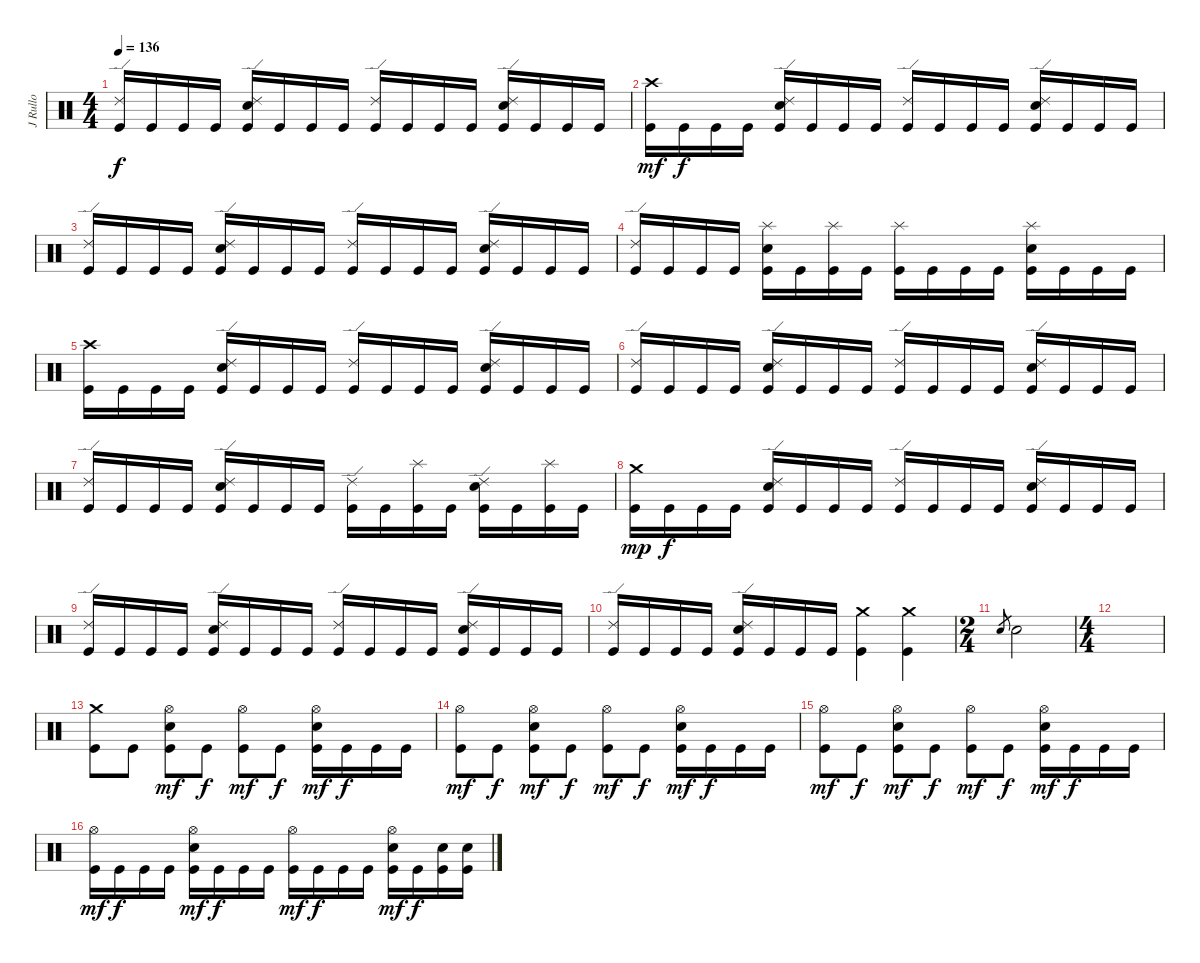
\track ("J Rullo" "J Rullo") {instrument percussion}
\staff {score}
\articulation defaults
\ts (4 4)
\tempo 136
\clef neutral
\ks c
("Ride (edge) 2" "Kick (hit)").16{dy f} "Kick (hit)".16 "Kick (hit)".16 "Kick (hit)".16 ("Ride (edge) 2" "Electric Snare (hit)" "Kick (hit)").16 "Kick (hit)".16 "Kick (hit)".16 "Kick (hit)".16 ("Ride (edge) 2" "Kick (hit)").16 "Kick (hit)".16 "Kick (hit)".16 "Kick (hit)".16 ("Ride (edge) 2" "Electric Snare (hit)" "Kick (hit)").16 "Kick (hit)".16 "Kick (hit)".16 "Kick (hit)".16 |
("Crash high (hit)" "Kick (hit)").16{dy mf} "Kick (hit)".16{dy f} "Kick (hit)".16 "Kick (hit)".16 ("Ride (edge) 2" "Electric Snare (hit)" "Kick (hit)").16 "Kick (hit)".16 "Kick (hit)".16 "Kick (hit)".16 ("Ride (edge) 2" "Kick (hit)").16 "Kick (hit)".16 "Kick (hit)".16 "Kick (hit)".16 ("Ride (edge) 2" "Electric Snare (hit)" "Kick (hit)").16 "Kick (hit)".16 "Kick (hit)".16 "Kick (hit)".16 |
("Ride (edge) 2" "Kick (hit)").16 "Kick (hit)".16 "Kick (hit)".16 "Kick (hit)".16 ("Ride (edge) 2" "Electric Snare (hit)" "Kick (hit)").16 "Kick (hit)".16 "Kick (hit)".16 "Kick (hit)".16 ("Ride (edge) 2" "Kick (hit)").16 "Kick (hit)".16 "Kick (hit)".16 "Kick (hit)".16 ("Ride (edge) 2" "Electric Snare (hit)" "Kick (hit)").16 "Kick (hit)".16 "Kick (hit)".16 "Kick (hit)".16 |
("Ride (edge) 2" "Kick (hit)").16 "Kick (hit)".16 "Kick (hit)".16 "Kick (hit)".16 ("Splash (hit)" "Electric Snare (hit)" "Kick (hit)").16 "Kick (hit)".16 ("Splash (hit)" "Kick (hit)").16 "Kick (hit)".16 ("Splash (hit)" "Kick (hit)").16 "Kick (hit)".16 "Kick (hit)".16 "Kick (hit)".16 ("Splash (hit)" "Electric Snare (hit)" "Kick (hit)").16 "Kick (hit)".16 "Kick (hit)".16 "Kick (hit)".16 |
("Crash high (hit)" "Kick (hit)").16 "Kick (hit)".16 "Kick (hit)".16 "Kick (hit)".16 ("Ride (edge) 2" "Electric Snare (hit)" "Kick (hit)").16 "Kick (hit)".16 "Kick (hit)".16 "Kick (hit)".16 ("Ride (edge) 2" "Kick (hit)").16 "Kick (hit)".16 "Kick (hit)".16 "Kick (hit)".16 ("Ride (edge) 2" "Electric Snare (hit)" "Kick (hit)").16 "Kick (hit)".16 "Kick (hit)".16 "Kick (hit)".16 |
("Ride (edge) 2" "Kick (hit)").16 "Kick (hit)".16 "Kick (hit)".16 "Kick (hit)".16 ("Ride (edge) 2" "Electric Snare (hit)" "Kick (hit)").16 "Kick (hit)".16 "Kick (hit)".16 "Kick (hit)".16 ("Ride (edge) 2" "Kick (hit)").16 "Kick (hit)".16 "Kick (hit)".16 "Kick (hit)".16 ("Ride (edge) 2" "Electric Snare (hit)" "Kick (hit)").16 "Kick (hit)".16 "Kick (hit)".16 "Kick (hit)".16 |
("Ride (edge) 2" "Kick (hit)").16 "Kick (hit)".16 "Kick (hit)".16 "Kick (hit)".16 ("Ride (edge) 2" "Electric Snare (hit)" "Kick (hit)").16 "Kick (hit)".16 "Kick (hit)".16 "Kick (hit)".16 ("Ride (edge) 2" "Kick (hit)").16 "Kick (hit)".16 ("Splash (hit)" "Kick (hit)").16 "Kick (hit)".16 ("Ride (edge) 2" "Electric Snare (hit)" "Kick (hit)").16 "Kick (hit)".16 ("Splash (hit)" "Kick (hit)").16 "Kick (hit)".16 |
("Crash medium (hit)" "Kick (hit)").16{dy mp} "Kick (hit)".16{dy f} "Kick (hit)".16 "Kick (hit)".16 ("Ride (edge) 2" "Electric Snare (hit)" "Kick (hit)").16 "Kick (hit)".16 "Kick (hit)".16 "Kick (hit)".16 ("Ride (edge) 2" "Kick (hit)").16 "Kick (hit)".16 "Kick (hit)".16 "Kick (hit)".16 ("Ride (edge) 2" "Electric Snare (hit)" "Kick (hit)").16 "Kick (hit)".16 "Kick (hit)".16 "Kick (hit)".16 |
("Ride (edge) 2" "Kick (hit)").16 "Kick (hit)".16 "Kick (hit)".16 "Kick (hit)".16 ("Ride (edge) 2" "Electric Snare (hit)" "Kick (hit)").16 "Kick (hit)".16 "Kick (hit)".16 "Kick (hit)".16 ("Ride (edge) 2" "Kick (hit)").16 "Kick (hit)".16 "Kick (hit)".16 "Kick (hit)".16 ("Ride (edge) 2" "Electric Snare (hit)" "Kick (hit)").16 "Kick (hit)".16 "Kick (hit)".16 "Kick (hit)".16 |
("Ride (edge) 2" "Kick (hit)").16 "Kick (hit)".16 "Kick (hit)".16 "Kick (hit)".16 ("Ride (edge) 2" "Electric Snare (hit)" "Kick (hit)").16 "Kick (hit)".16 "Kick (hit)".16 "Kick (hit)".16 ("Crash medium (hit)" "Kick (hit)").4 ("Crash medium (hit)" "Kick (hit)").4 |
\ts (2 4)
"Electric Snare (hit)".8{gr} "Electric Snare (hit)".2 |
\ts (4 4)
|
("Crash medium (hit)" "Kick (hit)").8 "Kick (hit)".8 ("Hi-Hat (open)" "Electric Snare (hit)" "Kick (hit)").8{dy mf} "Kick (hit)".8{dy f} ("Hi-Hat (open)" "Kick (hit)").8{dy mf} "Kick (hit)".8{dy f} ("Hi-Hat (open)" "Electric Snare (hit)" "Kick (hit)").16{dy mf} "Kick (hit)".16{dy f} "Kick (hit)".16 "Kick (hit)".16 |
("Hi-Hat (open)" "Kick (hit)").8{dy mf} "Kick (hit)".8{dy f} ("Hi-Hat (open)" "Electric Snare (hit)" "Kick (hit)").8{dy mf} "Kick (hit)".8{dy f} ("Hi-Hat (open)" "Kick (hit)").8{dy mf} "Kick (hit)".8{dy f} ("Hi-Hat (open)" "Electric Snare (hit)" "Kick (hit)").16{dy mf} "Kick (hit)".16{dy f} "Kick (hit)".16 "Kick (hit)".16 |
("Hi-Hat (open)" "Kick (hit)").8{dy mf} "Kick (hit)".8{dy f} ("Hi-Hat (open)" "Electric Snare (hit)" "Kick (hit)").8{dy mf} "Kick (hit)".8{dy f} ("Hi-Hat (open)" "Kick (hit)").8{dy mf} "Kick (hit)".8{dy f} ("Hi-Hat (open)" "Electric Snare (hit)" "Kick (hit)").16{dy mf} "Kick (hit)".16{dy f} "Kick (hit)".16 "Kick (hit)".16 |
("Hi-Hat (open)" "Kick (hit)").16{dy mf} "Kick (hit)".16{dy f} "Kick (hit)".16 "Kick (hit)".16 ("Hi-Hat (open)" "Electric Snare (hit)" "Kick (hit)").16{dy mf} "Kick (hit)".16{dy f} "Kick (hit)".16 "Kick (hit)".16 ("Hi-Hat (open)" "Kick (hit)").16{dy mf} "Kick (hit)".16{dy f} "Kick (hit)".16 "Kick (hit)".16 ("Hi-Hat (open)" "Electric Snare (hit)" "Kick (hit)").16{dy mf} "Kick (hit)".16{dy f} ("Electric Snare (hit)" "Kick (hit)").16 ("Electric Snare (hit)" "Kick (hit)").16
